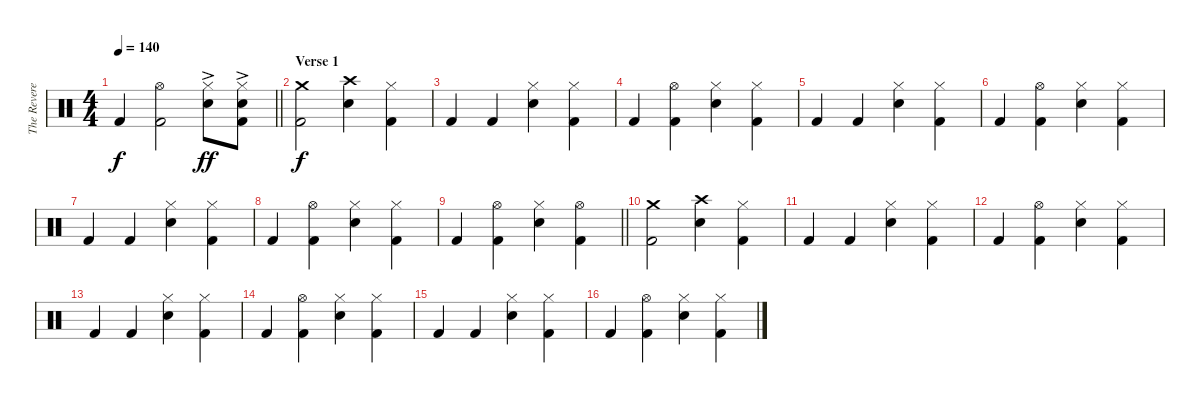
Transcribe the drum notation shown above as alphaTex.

\track ("The Reverend" "The Revere") {instrument percussion}
\staff {score}
\articulation defaults
\ts (4 4)
\tempo 140
\clef neutral
\barLineRight lightlight
\ks c "Kick (hit) 2".4{dy f}
("Hi-Hat (open)" "Kick (hit) 2").2 ("Hi-Hat (closed)" "Snare (hit) 2"{ac}).8{dy ff} ("Hi-Hat (closed)" "Snare (hit) 2"{ac} "Kick (hit) 2").8 |
\section ("" "Verse 1")
("Crash medium (hit)" "Kick (hit) 2").2{dy f} ("Crash high (hit)" "Snare (hit) 2").4 ("Hi-Hat (closed)" "Kick (hit) 2").4 |
"Kick (hit) 2".4 "Kick (hit) 2".4 ("Hi-Hat (closed)" "Snare (hit) 2").4 ("Hi-Hat (closed)" "Kick (hit) 2").4 |
"Kick (hit) 2".4 ("Hi-Hat (open)" "Kick (hit) 2").4 ("Hi-Hat (closed)" "Snare (hit) 2").4 ("Hi-Hat (closed)" "Kick (hit) 2").4 |
"Kick (hit) 2".4 "Kick (hit) 2".4 ("Hi-Hat (closed)" "Snare (hit) 2").4 ("Hi-Hat (closed)" "Kick (hit) 2").4 |
"Kick (hit) 2".4 ("Hi-Hat (open)" "Kick (hit) 2").4 ("Hi-Hat (closed)" "Snare (hit) 2").4 ("Hi-Hat (closed)" "Kick (hit) 2").4 |
"Kick (hit) 2".4 "Kick (hit) 2".4 ("Hi-Hat (closed)" "Snare (hit) 2").4 ("Hi-Hat (closed)" "Kick (hit) 2").4 |
"Kick (hit) 2".4 ("Hi-Hat (open)" "Kick (hit) 2").4 ("Hi-Hat (closed)" "Snare (hit) 2").4 ("Hi-Hat (closed)" "Kick (hit) 2").4 |
\barLineRight lightlight "Kick (hit) 2".4
("Hi-Hat (open)" "Kick (hit) 2").4 ("Hi-Hat (closed)" "Snare (hit) 2").4 ("Hi-Hat (open)" "Kick (hit) 2").4 |
("Crash medium (hit)" "Kick (hit) 2").2 ("Crash high (hit)" "Snare (hit) 2").4 ("Hi-Hat (closed)" "Kick (hit) 2").4 |
"Kick (hit) 2".4 "Kick (hit) 2".4 ("Hi-Hat (closed)" "Snare (hit) 2").4 ("Hi-Hat (closed)" "Kick (hit) 2").4 |
"Kick (hit) 2".4 ("Hi-Hat (open)" "Kick (hit) 2").4 ("Hi-Hat (closed)" "Snare (hit) 2").4 ("Hi-Hat (closed)" "Kick (hit) 2").4 |
"Kick (hit) 2".4 "Kick (hit) 2".4 ("Hi-Hat (closed)" "Snare (hit) 2").4 ("Hi-Hat (closed)" "Kick (hit) 2").4 |
"Kick (hit) 2".4 ("Hi-Hat (open)" "Kick (hit) 2").4 ("Hi-Hat (closed)" "Snare (hit) 2").4 ("Hi-Hat (closed)" "Kick (hit) 2").4 |
"Kick (hit) 2".4 "Kick (hit) 2".4 ("Hi-Hat (closed)" "Snare (hit) 2").4 ("Hi-Hat (closed)" "Kick (hit) 2").4 |
"Kick (hit) 2".4 ("Hi-Hat (open)" "Kick (hit) 2").4 ("Hi-Hat (closed)" "Snare (hit) 2").4 ("Hi-Hat (closed)" "Kick (hit) 2").4
